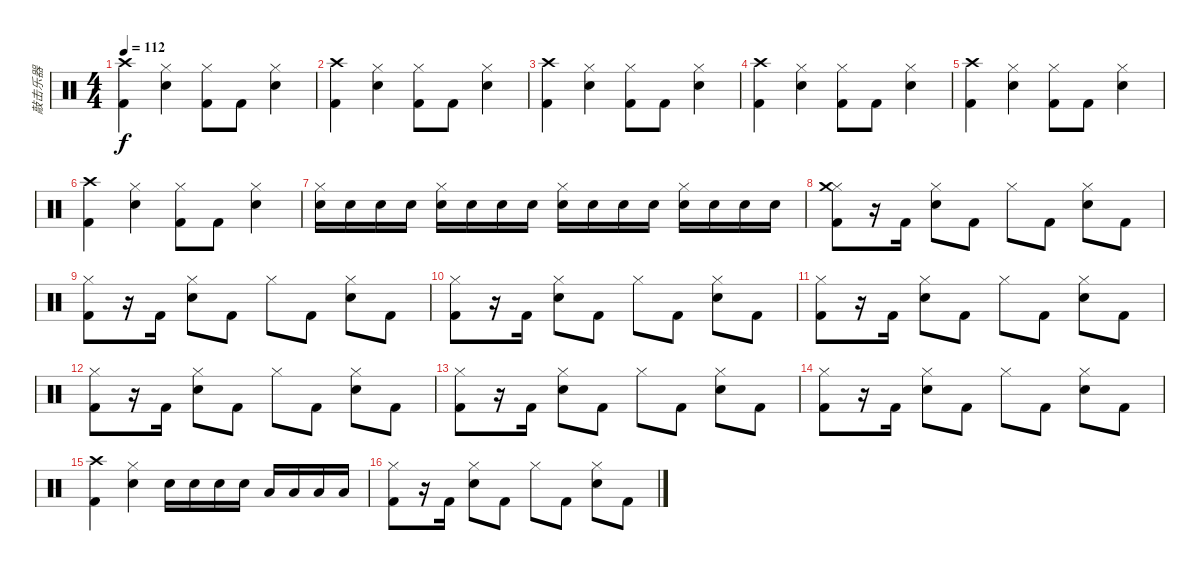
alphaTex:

\track ("敲击乐器" "敲击乐器") {instrument percussion}
\staff {score}
\articulation defaults
\ts (4 4)
\tempo 112
\clef neutral
\ks c
("Crash high (hit)" "Kick (hit) 2").4{dy f} ("Hi-Hat (closed)" "Snare (hit) 2").4 ("Hi-Hat (closed)" "Kick (hit) 2").8 "Kick (hit) 2".8 ("Hi-Hat (closed)" "Snare (hit) 2").4 |
("Crash high (hit)" "Kick (hit) 2").4 ("Hi-Hat (closed)" "Snare (hit) 2").4 ("Hi-Hat (closed)" "Kick (hit) 2").8 "Kick (hit) 2".8 ("Hi-Hat (closed)" "Snare (hit) 2").4 |
("Crash high (hit)" "Kick (hit) 2").4 ("Hi-Hat (closed)" "Snare (hit) 2").4 ("Hi-Hat (closed)" "Kick (hit) 2").8 "Kick (hit) 2".8 ("Hi-Hat (closed)" "Snare (hit) 2").4 |
("Crash high (hit)" "Kick (hit) 2").4 ("Hi-Hat (closed)" "Snare (hit) 2").4 ("Hi-Hat (closed)" "Kick (hit) 2").8 "Kick (hit) 2".8 ("Hi-Hat (closed)" "Snare (hit) 2").4 |
("Crash high (hit)" "Kick (hit) 2").4 ("Hi-Hat (closed)" "Snare (hit) 2").4 ("Hi-Hat (closed)" "Kick (hit) 2").8 "Kick (hit) 2".8 ("Hi-Hat (closed)" "Snare (hit) 2").4 |
("Crash high (hit)" "Kick (hit) 2").4 ("Hi-Hat (closed)" "Snare (hit) 2").4 ("Hi-Hat (closed)" "Kick (hit) 2").8 "Kick (hit) 2".8 ("Hi-Hat (closed)" "Snare (hit) 2").4 |
("Electric Snare (hit)" "Hi-Hat (closed)").16{volume 8} "Electric Snare (hit)".16 "Electric Snare (hit)".16{volume 9} "Electric Snare (hit)".16 ("Electric Snare (hit)" "Hi-Hat (closed)").16{volume 10} "Electric Snare (hit)".16 "Electric Snare (hit)".16{volume 11} "Electric Snare (hit)".16 ("Electric Snare (hit)" "Hi-Hat (closed)").16{volume 12} "Electric Snare (hit)".16 "Electric Snare (hit)".16{volume 13} "Electric Snare (hit)".16 ("Electric Snare (hit)" "Hi-Hat (closed)").16{volume 14} "Electric Snare (hit)".16 "Electric Snare (hit)".16{volume 15} "Electric Snare (hit)".16 |
("Hi-Hat (closed)" "Crash medium (hit)" "Kick (hit) 2").8 r.16 "Kick (hit) 2".16 ("Hi-Hat (closed)" "Electric Snare (hit)").8 "Kick (hit) 2".8 "Hi-Hat (closed)".8 "Kick (hit) 2".8 ("Hi-Hat (closed)" "Electric Snare (hit)").8 "Kick (hit) 2".8 |
("Hi-Hat (closed)" "Kick (hit) 2").8 r.16 "Kick (hit) 2".16 ("Hi-Hat (closed)" "Electric Snare (hit)").8 "Kick (hit) 2".8 "Hi-Hat (closed)".8 "Kick (hit) 2".8 ("Hi-Hat (closed)" "Electric Snare (hit)").8 "Kick (hit) 2".8 |
("Hi-Hat (closed)" "Kick (hit) 2").8 r.16 "Kick (hit) 2".16 ("Hi-Hat (closed)" "Electric Snare (hit)").8 "Kick (hit) 2".8 "Hi-Hat (closed)".8 "Kick (hit) 2".8 ("Hi-Hat (closed)" "Electric Snare (hit)").8 "Kick (hit) 2".8 |
("Hi-Hat (closed)" "Kick (hit) 2").8 r.16 "Kick (hit) 2".16 ("Hi-Hat (closed)" "Electric Snare (hit)").8 "Kick (hit) 2".8 "Hi-Hat (closed)".8 "Kick (hit) 2".8 ("Hi-Hat (closed)" "Electric Snare (hit)").8 "Kick (hit) 2".8 |
("Hi-Hat (closed)" "Kick (hit) 2").8 r.16 "Kick (hit) 2".16 ("Hi-Hat (closed)" "Electric Snare (hit)").8 "Kick (hit) 2".8 "Hi-Hat (closed)".8 "Kick (hit) 2".8 ("Hi-Hat (closed)" "Electric Snare (hit)").8 "Kick (hit) 2".8 |
("Hi-Hat (closed)" "Kick (hit) 2").8 r.16 "Kick (hit) 2".16 ("Hi-Hat (closed)" "Electric Snare (hit)").8 "Kick (hit) 2".8 "Hi-Hat (closed)".8 "Kick (hit) 2".8 ("Hi-Hat (closed)" "Electric Snare (hit)").8 "Kick (hit) 2".8 |
("Hi-Hat (closed)" "Kick (hit) 2").8 r.16 "Kick (hit) 2".16 ("Hi-Hat (closed)" "Electric Snare (hit)").8 "Kick (hit) 2".8 "Hi-Hat (closed)".8 "Kick (hit) 2".8 ("Hi-Hat (closed)" "Electric Snare (hit)").8 "Kick (hit) 2".8 |
("Crash high (hit)" "Kick (hit) 2").4 ("Hi-Hat (closed)" "Snare (hit) 2").4 "Snare (hit) 2".16 "Snare (hit) 2".16 "Snare (hit) 2".16 "Snare (hit) 2".16 "Low Floor Tom (hit)".16 "Low Floor Tom (hit)".16 "Low Tom (hit)".16 "Low Tom (hit)".16 |
("Hi-Hat (closed)" "Kick (hit) 2").8 r.16 "Kick (hit) 2".16 ("Hi-Hat (closed)" "Electric Snare (hit)").8 "Kick (hit) 2".8 "Hi-Hat (closed)".8 "Kick (hit) 2".8 ("Hi-Hat (closed)" "Electric Snare (hit)").8 "Kick (hit) 2".8
